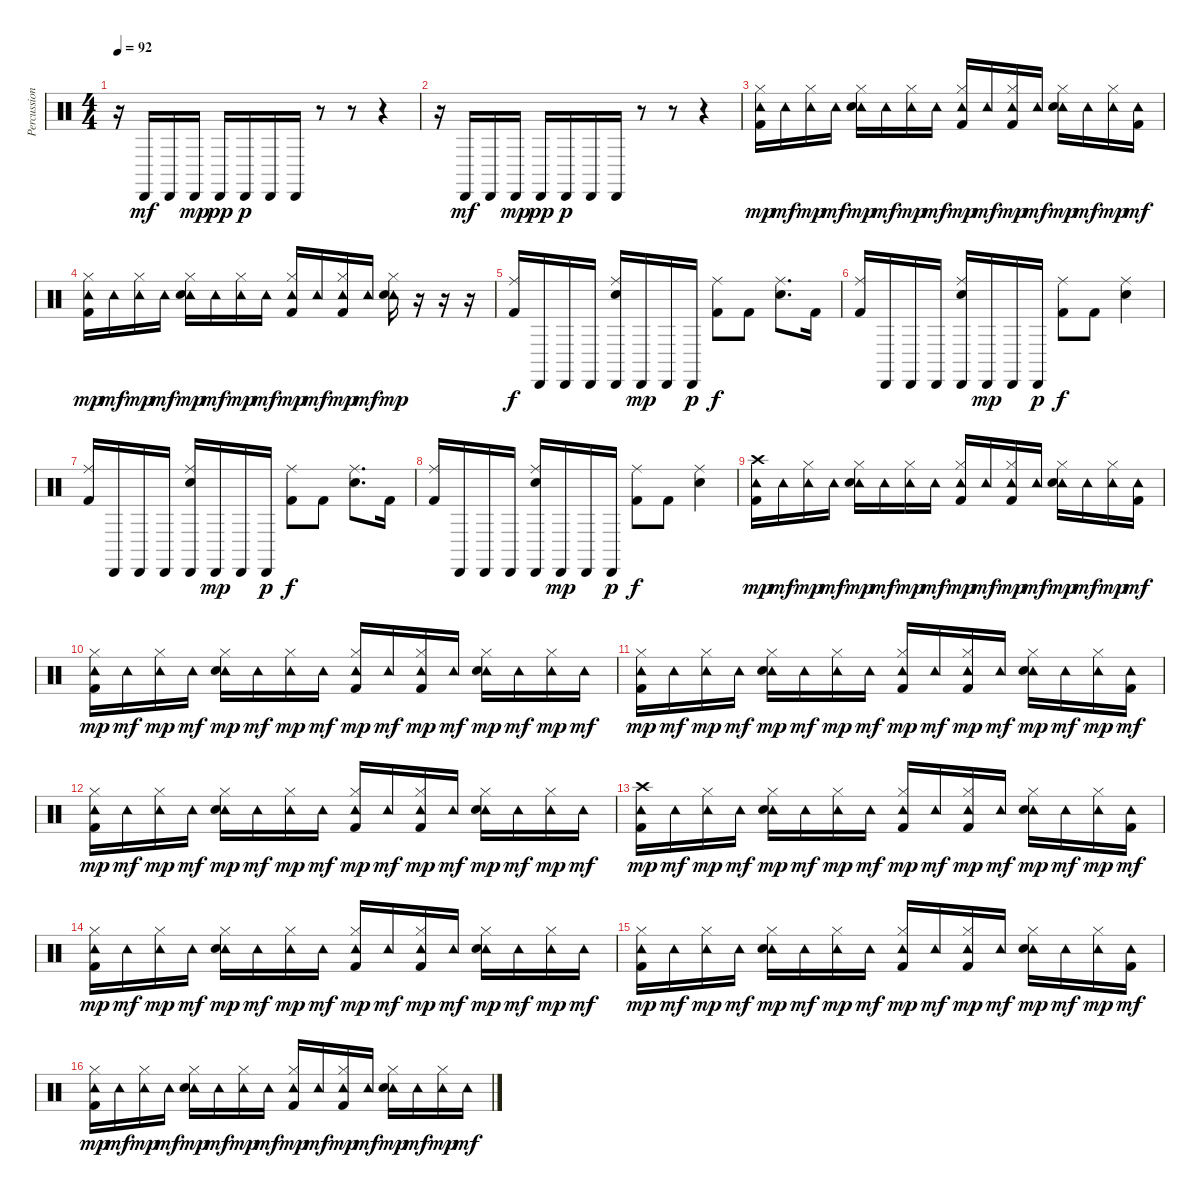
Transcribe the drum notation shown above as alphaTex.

\track ("Percussion" "Percussion") {instrument percussion}
\staff {score}
\articulation defaults
\ts (4 4)
\tempo 92
\clef neutral
\ks c
r.16{dy f} "Cabasa (hit)".16{dy mf} "Cabasa (hit)".16 "Cabasa (hit)".16{dy mp} "Cabasa (hit)".16{dy pp} "Cabasa (hit)".16{dy p} "Cabasa (hit)".16 "Cabasa (hit)".16 r.8 r.8 r.4 |
r.16 "Cabasa (hit)".16{dy mf} "Cabasa (hit)".16 "Cabasa (hit)".16{dy mp} "Cabasa (hit)".16{dy pp} "Cabasa (hit)".16{dy p} "Cabasa (hit)".16 "Cabasa (hit)".16 r.8 r.8 r.4 |
("Tambourine (hit)" "Hi-Hat (closed)" "Kick (hit) 2").16{dy mp} "Tambourine (hit)".16{dy mf} ("Tambourine (hit)" "Hi-Hat (closed)").16{dy mp} "Tambourine (hit)".16{dy mf} ("Tambourine (hit)" "Hi-Hat (closed)" "Electric Snare (hit)").16{dy mp} "Tambourine (hit)".16{dy mf} ("Tambourine (hit)" "Hi-Hat (closed)").16{dy mp} "Tambourine (hit)".16{dy mf} ("Tambourine (hit)" "Hi-Hat (closed)" "Kick (hit) 2").16{dy mp} "Tambourine (hit)".16{dy mf} ("Tambourine (hit)" "Hi-Hat (closed)" "Kick (hit) 2").16{dy mp} "Tambourine (hit)".16{dy mf} ("Tambourine (hit)" "Hi-Hat (closed)" "Electric Snare (hit)").16{dy mp} "Tambourine (hit)".16{dy mf} ("Tambourine (hit)" "Hi-Hat (closed)").16{dy mp} ("Tambourine (hit)" "Kick (hit) 2").16{dy mf} |
("Tambourine (hit)" "Hi-Hat (closed)" "Kick (hit) 2").16{dy mp} "Tambourine (hit)".16{dy mf} ("Tambourine (hit)" "Hi-Hat (closed)").16{dy mp} "Tambourine (hit)".16{dy mf} ("Tambourine (hit)" "Hi-Hat (closed)" "Electric Snare (hit)").16{dy mp} "Tambourine (hit)".16{dy mf} ("Tambourine (hit)" "Hi-Hat (closed)").16{dy mp} "Tambourine (hit)".16{dy mf} ("Tambourine (hit)" "Hi-Hat (closed)" "Kick (hit) 2").16{dy mp} "Tambourine (hit)".16{dy mf} ("Tambourine (hit)" "Hi-Hat (closed)" "Kick (hit) 2").16{dy mp} "Tambourine (hit)".16{dy mf} ("Tambourine (hit)" "Hi-Hat (closed)" "Electric Snare (hit)").16{dy mp} r.16 r.16 r.16 |
("Ride (middle)" "Kick (hit) 2").16{dy f} "Cabasa (hit)".16 "Cabasa (hit)".16 "Cabasa (hit)".16 ("Cabasa (hit)" "Ride (middle)" "Electric Snare (hit)").16 "Cabasa (hit)".16{dy mp} "Cabasa (hit)".16 "Cabasa (hit)".16{dy p} ("Ride (middle)" "Kick (hit) 2").8{dy f} "Kick (hit) 2".8 ("Ride (middle)" "Electric Snare (hit)").8{d} "Kick (hit) 2".16 |
("Ride (middle)" "Kick (hit) 2").16 "Cabasa (hit)".16 "Cabasa (hit)".16 "Cabasa (hit)".16 ("Cabasa (hit)" "Ride (middle)" "Electric Snare (hit)").16 "Cabasa (hit)".16{dy mp} "Cabasa (hit)".16 "Cabasa (hit)".16{dy p} ("Ride (middle)" "Kick (hit) 2").8{dy f} "Kick (hit) 2".8 ("Ride (middle)" "Electric Snare (hit)").4 |
("Ride (middle)" "Kick (hit) 2").16 "Cabasa (hit)".16 "Cabasa (hit)".16 "Cabasa (hit)".16 ("Cabasa (hit)" "Ride (middle)" "Electric Snare (hit)").16 "Cabasa (hit)".16{dy mp} "Cabasa (hit)".16 "Cabasa (hit)".16{dy p} ("Ride (middle)" "Kick (hit) 2").8{dy f} "Kick (hit) 2".8 ("Ride (middle)" "Electric Snare (hit)").8{d} "Kick (hit) 2".16 |
("Ride (middle)" "Kick (hit) 2").16 "Cabasa (hit)".16 "Cabasa (hit)".16 "Cabasa (hit)".16 ("Cabasa (hit)" "Ride (middle)" "Electric Snare (hit)").16 "Cabasa (hit)".16{dy mp} "Cabasa (hit)".16 "Cabasa (hit)".16{dy p} ("Ride (middle)" "Kick (hit) 2").8{dy f} "Kick (hit) 2".8 ("Ride (middle)" "Electric Snare (hit)").4 |
("Tambourine (hit)" "Crash high (hit)" "Kick (hit) 2").16{dy mp} "Tambourine (hit)".16{dy mf} ("Tambourine (hit)" "Hi-Hat (closed)").16{dy mp} "Tambourine (hit)".16{dy mf} ("Tambourine (hit)" "Hi-Hat (closed)" "Electric Snare (hit)").16{dy mp} "Tambourine (hit)".16{dy mf} ("Tambourine (hit)" "Hi-Hat (closed)").16{dy mp} "Tambourine (hit)".16{dy mf} ("Tambourine (hit)" "Hi-Hat (closed)" "Kick (hit) 2").16{dy mp} "Tambourine (hit)".16{dy mf} ("Tambourine (hit)" "Hi-Hat (closed)" "Kick (hit) 2").16{dy mp} "Tambourine (hit)".16{dy mf} ("Tambourine (hit)" "Hi-Hat (closed)" "Electric Snare (hit)").16{dy mp} "Tambourine (hit)".16{dy mf} ("Tambourine (hit)" "Hi-Hat (closed)").16{dy mp} ("Tambourine (hit)" "Kick (hit) 2").16{dy mf} |
("Tambourine (hit)" "Hi-Hat (closed)" "Kick (hit) 2").16{dy mp} "Tambourine (hit)".16{dy mf} ("Tambourine (hit)" "Hi-Hat (closed)").16{dy mp} "Tambourine (hit)".16{dy mf} ("Tambourine (hit)" "Hi-Hat (closed)" "Electric Snare (hit)").16{dy mp} "Tambourine (hit)".16{dy mf} ("Tambourine (hit)" "Hi-Hat (closed)").16{dy mp} "Tambourine (hit)".16{dy mf} ("Tambourine (hit)" "Hi-Hat (closed)" "Kick (hit) 2").16{dy mp} "Tambourine (hit)".16{dy mf} ("Tambourine (hit)" "Hi-Hat (closed)" "Kick (hit) 2").16{dy mp} "Tambourine (hit)".16{dy mf} ("Tambourine (hit)" "Hi-Hat (closed)" "Electric Snare (hit)").16{dy mp} "Tambourine (hit)".16{dy mf} ("Tambourine (hit)" "Hi-Hat (closed)").16{dy mp} "Tambourine (hit)".16{dy mf} |
("Tambourine (hit)" "Hi-Hat (closed)" "Kick (hit) 2").16{dy mp} "Tambourine (hit)".16{dy mf} ("Tambourine (hit)" "Hi-Hat (closed)").16{dy mp} "Tambourine (hit)".16{dy mf} ("Tambourine (hit)" "Hi-Hat (closed)" "Electric Snare (hit)").16{dy mp} "Tambourine (hit)".16{dy mf} ("Tambourine (hit)" "Hi-Hat (closed)").16{dy mp} "Tambourine (hit)".16{dy mf} ("Tambourine (hit)" "Hi-Hat (closed)" "Kick (hit) 2").16{dy mp} "Tambourine (hit)".16{dy mf} ("Tambourine (hit)" "Hi-Hat (closed)" "Kick (hit) 2").16{dy mp} "Tambourine (hit)".16{dy mf} ("Tambourine (hit)" "Hi-Hat (closed)" "Electric Snare (hit)").16{dy mp} "Tambourine (hit)".16{dy mf} ("Tambourine (hit)" "Hi-Hat (closed)").16{dy mp} ("Tambourine (hit)" "Kick (hit) 2").16{dy mf} |
("Tambourine (hit)" "Hi-Hat (closed)" "Kick (hit) 2").16{dy mp} "Tambourine (hit)".16{dy mf} ("Tambourine (hit)" "Hi-Hat (closed)").16{dy mp} "Tambourine (hit)".16{dy mf} ("Tambourine (hit)" "Hi-Hat (closed)" "Electric Snare (hit)").16{dy mp} "Tambourine (hit)".16{dy mf} ("Tambourine (hit)" "Hi-Hat (closed)").16{dy mp} "Tambourine (hit)".16{dy mf} ("Tambourine (hit)" "Hi-Hat (closed)" "Kick (hit) 2").16{dy mp} "Tambourine (hit)".16{dy mf} ("Tambourine (hit)" "Hi-Hat (closed)" "Kick (hit) 2").16{dy mp} "Tambourine (hit)".16{dy mf} ("Tambourine (hit)" "Hi-Hat (closed)" "Electric Snare (hit)").16{dy mp} "Tambourine (hit)".16{dy mf} ("Tambourine (hit)" "Hi-Hat (closed)").16{dy mp} "Tambourine (hit)".16{dy mf} |
("Tambourine (hit)" "Crash high (hit)" "Kick (hit) 2").16{dy mp} "Tambourine (hit)".16{dy mf} ("Tambourine (hit)" "Hi-Hat (closed)").16{dy mp} "Tambourine (hit)".16{dy mf} ("Tambourine (hit)" "Hi-Hat (closed)" "Electric Snare (hit)").16{dy mp} "Tambourine (hit)".16{dy mf} ("Tambourine (hit)" "Hi-Hat (closed)").16{dy mp} "Tambourine (hit)".16{dy mf} ("Tambourine (hit)" "Hi-Hat (closed)" "Kick (hit) 2").16{dy mp} "Tambourine (hit)".16{dy mf} ("Tambourine (hit)" "Hi-Hat (closed)" "Kick (hit) 2").16{dy mp} "Tambourine (hit)".16{dy mf} ("Tambourine (hit)" "Hi-Hat (closed)" "Electric Snare (hit)").16{dy mp} "Tambourine (hit)".16{dy mf} ("Tambourine (hit)" "Hi-Hat (closed)").16{dy mp} ("Tambourine (hit)" "Kick (hit) 2").16{dy mf} |
("Tambourine (hit)" "Hi-Hat (closed)" "Kick (hit) 2").16{dy mp} "Tambourine (hit)".16{dy mf} ("Tambourine (hit)" "Hi-Hat (closed)").16{dy mp} "Tambourine (hit)".16{dy mf} ("Tambourine (hit)" "Hi-Hat (closed)" "Electric Snare (hit)").16{dy mp} "Tambourine (hit)".16{dy mf} ("Tambourine (hit)" "Hi-Hat (closed)").16{dy mp} "Tambourine (hit)".16{dy mf} ("Tambourine (hit)" "Hi-Hat (closed)" "Kick (hit) 2").16{dy mp} "Tambourine (hit)".16{dy mf} ("Tambourine (hit)" "Hi-Hat (closed)" "Kick (hit) 2").16{dy mp} "Tambourine (hit)".16{dy mf} ("Tambourine (hit)" "Hi-Hat (closed)" "Electric Snare (hit)").16{dy mp} "Tambourine (hit)".16{dy mf} ("Tambourine (hit)" "Hi-Hat (closed)").16{dy mp} "Tambourine (hit)".16{dy mf} |
("Tambourine (hit)" "Hi-Hat (closed)" "Kick (hit) 2").16{dy mp} "Tambourine (hit)".16{dy mf} ("Tambourine (hit)" "Hi-Hat (closed)").16{dy mp} "Tambourine (hit)".16{dy mf} ("Tambourine (hit)" "Hi-Hat (closed)" "Electric Snare (hit)").16{dy mp} "Tambourine (hit)".16{dy mf} ("Tambourine (hit)" "Hi-Hat (closed)").16{dy mp} "Tambourine (hit)".16{dy mf} ("Tambourine (hit)" "Hi-Hat (closed)" "Kick (hit) 2").16{dy mp} "Tambourine (hit)".16{dy mf} ("Tambourine (hit)" "Hi-Hat (closed)" "Kick (hit) 2").16{dy mp} "Tambourine (hit)".16{dy mf} ("Tambourine (hit)" "Hi-Hat (closed)" "Electric Snare (hit)").16{dy mp} "Tambourine (hit)".16{dy mf} ("Tambourine (hit)" "Hi-Hat (closed)").16{dy mp} ("Tambourine (hit)" "Kick (hit) 2").16{dy mf} |
("Tambourine (hit)" "Hi-Hat (closed)" "Kick (hit) 2").16{dy mp} "Tambourine (hit)".16{dy mf} ("Tambourine (hit)" "Hi-Hat (closed)").16{dy mp} "Tambourine (hit)".16{dy mf} ("Tambourine (hit)" "Hi-Hat (closed)" "Electric Snare (hit)").16{dy mp} "Tambourine (hit)".16{dy mf} ("Tambourine (hit)" "Hi-Hat (closed)").16{dy mp} "Tambourine (hit)".16{dy mf} ("Tambourine (hit)" "Hi-Hat (closed)" "Kick (hit) 2").16{dy mp} "Tambourine (hit)".16{dy mf} ("Tambourine (hit)" "Hi-Hat (closed)" "Kick (hit) 2").16{dy mp} "Tambourine (hit)".16{dy mf} ("Tambourine (hit)" "Hi-Hat (closed)" "Electric Snare (hit)").16{dy mp} "Tambourine (hit)".16{dy mf} ("Tambourine (hit)" "Hi-Hat (closed)").16{dy mp} "Tambourine (hit)".16{dy mf}
